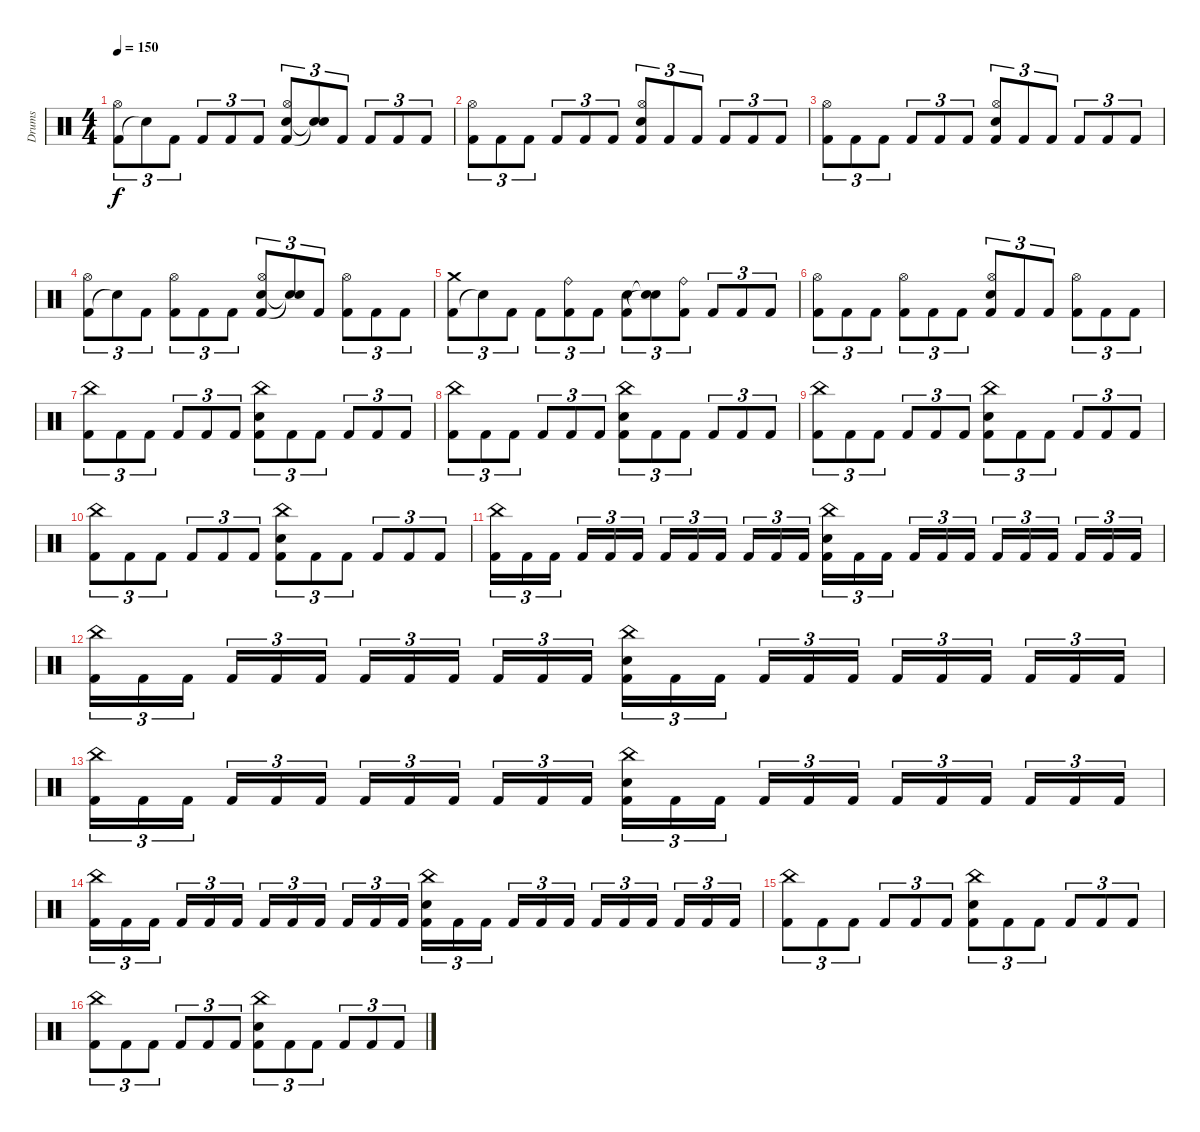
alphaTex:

\track ("Drums" "Drums") {instrument percussion}
\staff {score}
\articulation defaults
\ts (4 4)
\tempo 150
\clef neutral
\ks c
("Kick (hit) 2" "Hi-Hat (open)").8{tu (3 2) dy f} "Snare (hit)"{t}.8{tu (3 2)} "Kick (hit) 2".8{tu (3 2)} "Kick (hit) 2".8{tu (3 2)} "Kick (hit) 2".8{tu (3 2)} "Kick (hit) 2".8{tu (3 2)} ("Snare (hit) 2" "Kick (hit) 2" "Hi-Hat (open)").8{tu (3 2)} ("Snare (hit)"{t} "Snare (hit)"{t}).8{tu (3 2)} "Kick (hit) 2".8{tu (3 2)} "Kick (hit) 2".8{tu (3 2)} "Kick (hit) 2".8{tu (3 2)} "Kick (hit) 2".8{tu (3 2)} |
("Kick (hit) 2" "Hi-Hat (open)").8{tu (3 2)} "Kick (hit) 2".8{tu (3 2)} "Kick (hit) 2".8{tu (3 2)} "Kick (hit) 2".8{tu (3 2)} "Kick (hit) 2".8{tu (3 2)} "Kick (hit) 2".8{tu (3 2)} ("Snare (hit) 2" "Kick (hit) 2" "Hi-Hat (open)").8{tu (3 2)} "Kick (hit) 2".8{tu (3 2)} "Kick (hit) 2".8{tu (3 2)} "Kick (hit) 2".8{tu (3 2)} "Kick (hit) 2".8{tu (3 2)} "Kick (hit) 2".8{tu (3 2)} |
("Kick (hit) 2" "Hi-Hat (open)").8{tu (3 2)} "Kick (hit) 2".8{tu (3 2)} "Kick (hit) 2".8{tu (3 2)} "Kick (hit) 2".8{tu (3 2)} "Kick (hit) 2".8{tu (3 2)} "Kick (hit) 2".8{tu (3 2)} ("Snare (hit) 2" "Kick (hit) 2" "Hi-Hat (open)").8{tu (3 2)} "Kick (hit) 2".8{tu (3 2)} "Kick (hit) 2".8{tu (3 2)} "Kick (hit) 2".8{tu (3 2)} "Kick (hit) 2".8{tu (3 2)} "Kick (hit) 2".8{tu (3 2)} |
("Kick (hit) 2" "Hi-Hat (open)").8{tu (3 2)} "Snare (hit)"{t}.8{tu (3 2)} "Kick (hit) 2".8{tu (3 2)} ("Kick (hit) 2" "Hi-Hat (open)").8{tu (3 2)} "Kick (hit) 2".8{tu (3 2)} "Kick (hit) 2".8{tu (3 2)} ("Snare (hit) 2" "Kick (hit) 2" "Hi-Hat (open)").8{tu (3 2)} ("Snare (hit)"{t} "Snare (hit)"{t}).8{tu (3 2)} "Kick (hit) 2".8{tu (3 2)} ("Kick (hit) 2" "Hi-Hat (open)").8{tu (3 2)} "Kick (hit) 2".8{tu (3 2)} "Kick (hit) 2".8{tu (3 2)} |
("Kick (hit) 2" "Crash medium (hit)").8{tu (3 2)} "Snare (hit)"{t}.8{tu (3 2)} "Kick (hit) 2".8{tu (3 2)} "Kick (hit) 2".8{tu (3 2)} ("Kick (hit) 2" "Ride (bell)").8{tu (3 2)} "Kick (hit) 2".8{tu (3 2)} ("Snare (hit) 2" "Kick (hit) 2").8{tu (3 2)} ("Snare (hit)"{t} "Snare (hit)"{t}).8{tu (3 2)} ("Kick (hit) 2" "Ride (bell)").8{tu (3 2)} "Kick (hit) 2".8{tu (3 2)} "Kick (hit) 2".8{tu (3 2)} "Kick (hit) 2".8{tu (3 2)} |
("Kick (hit) 2" "Hi-Hat (open)").8{tu (3 2)} "Kick (hit) 2".8{tu (3 2)} "Kick (hit) 2".8{tu (3 2)} ("Kick (hit) 2" "Hi-Hat (open)").8{tu (3 2)} "Kick (hit) 2".8{tu (3 2)} "Kick (hit) 2".8{tu (3 2)} ("Snare (hit) 2" "Kick (hit) 2" "Hi-Hat (open)").8{tu (3 2)} "Kick (hit) 2".8{tu (3 2)} "Kick (hit) 2".8{tu (3 2)} ("Kick (hit) 2" "Hi-Hat (open)").8{tu (3 2)} "Kick (hit) 2".8{tu (3 2)} "Kick (hit) 2".8{tu (3 2)} |
("China (hit)" "Kick (hit) 2").8{tu (3 2)} "Kick (hit) 2".8{tu (3 2)} "Kick (hit) 2".8{tu (3 2)} "Kick (hit) 2".8{tu (3 2)} "Kick (hit) 2".8{tu (3 2)} "Kick (hit) 2".8{tu (3 2)} ("China (hit)" "Snare (hit) 2" "Kick (hit) 2").8{tu (3 2)} "Kick (hit) 2".8{tu (3 2)} "Kick (hit) 2".8{tu (3 2)} "Kick (hit) 2".8{tu (3 2)} "Kick (hit) 2".8{tu (3 2)} "Kick (hit) 2".8{tu (3 2)} |
("China (hit)" "Kick (hit) 2").8{tu (3 2)} "Kick (hit) 2".8{tu (3 2)} "Kick (hit) 2".8{tu (3 2)} "Kick (hit) 2".8{tu (3 2)} "Kick (hit) 2".8{tu (3 2)} "Kick (hit) 2".8{tu (3 2)} ("China (hit)" "Snare (hit) 2" "Kick (hit) 2").8{tu (3 2)} "Kick (hit) 2".8{tu (3 2)} "Kick (hit) 2".8{tu (3 2)} "Kick (hit) 2".8{tu (3 2)} "Kick (hit) 2".8{tu (3 2)} "Kick (hit) 2".8{tu (3 2)} |
("China (hit)" "Kick (hit) 2").8{tu (3 2)} "Kick (hit) 2".8{tu (3 2)} "Kick (hit) 2".8{tu (3 2)} "Kick (hit) 2".8{tu (3 2)} "Kick (hit) 2".8{tu (3 2)} "Kick (hit) 2".8{tu (3 2)} ("China (hit)" "Snare (hit) 2" "Kick (hit) 2").8{tu (3 2)} "Kick (hit) 2".8{tu (3 2)} "Kick (hit) 2".8{tu (3 2)} "Kick (hit) 2".8{tu (3 2)} "Kick (hit) 2".8{tu (3 2)} "Kick (hit) 2".8{tu (3 2)} |
("China (hit)" "Kick (hit) 2").8{tu (3 2)} "Kick (hit) 2".8{tu (3 2)} "Kick (hit) 2".8{tu (3 2)} "Kick (hit) 2".8{tu (3 2)} "Kick (hit) 2".8{tu (3 2)} "Kick (hit) 2".8{tu (3 2)} ("China (hit)" "Snare (hit) 2" "Kick (hit) 2").8{tu (3 2)} "Kick (hit) 2".8{tu (3 2)} "Kick (hit) 2".8{tu (3 2)} "Kick (hit) 2".8{tu (3 2)} "Kick (hit) 2".8{tu (3 2)} "Kick (hit) 2".8{tu (3 2)} |
("China (hit)" "Kick (hit) 2").16{tu (3 2)} "Kick (hit) 2".16{tu (3 2)} "Kick (hit) 2".16{tu (3 2) beam splitsecondary} "Kick (hit) 2".16{tu (3 2)} "Kick (hit) 2".16{tu (3 2)} "Kick (hit) 2".16{tu (3 2)} "Kick (hit) 2".16{tu (3 2)} "Kick (hit) 2".16{tu (3 2)} "Kick (hit) 2".16{tu (3 2) beam splitsecondary} "Kick (hit) 2".16{tu (3 2)} "Kick (hit) 2".16{tu (3 2)} "Kick (hit) 2".16{tu (3 2)} ("China (hit)" "Snare (hit) 2" "Kick (hit) 2").16{tu (3 2)} "Kick (hit) 2".16{tu (3 2)} "Kick (hit) 2".16{tu (3 2) beam splitsecondary} "Kick (hit) 2".16{tu (3 2)} "Kick (hit) 2".16{tu (3 2)} "Kick (hit) 2".16{tu (3 2)} "Kick (hit) 2".16{tu (3 2)} "Kick (hit) 2".16{tu (3 2)} "Kick (hit) 2".16{tu (3 2) beam splitsecondary} "Kick (hit) 2".16{tu (3 2)} "Kick (hit) 2".16{tu (3 2)} "Kick (hit) 2".16{tu (3 2)} |
("China (hit)" "Kick (hit) 2").16{tu (3 2)} "Kick (hit) 2".16{tu (3 2)} "Kick (hit) 2".16{tu (3 2) beam splitsecondary} "Kick (hit) 2".16{tu (3 2)} "Kick (hit) 2".16{tu (3 2)} "Kick (hit) 2".16{tu (3 2)} "Kick (hit) 2".16{tu (3 2)} "Kick (hit) 2".16{tu (3 2)} "Kick (hit) 2".16{tu (3 2) beam splitsecondary} "Kick (hit) 2".16{tu (3 2)} "Kick (hit) 2".16{tu (3 2)} "Kick (hit) 2".16{tu (3 2)} ("China (hit)" "Snare (hit) 2" "Kick (hit) 2").16{tu (3 2)} "Kick (hit) 2".16{tu (3 2)} "Kick (hit) 2".16{tu (3 2) beam splitsecondary} "Kick (hit) 2".16{tu (3 2)} "Kick (hit) 2".16{tu (3 2)} "Kick (hit) 2".16{tu (3 2)} "Kick (hit) 2".16{tu (3 2)} "Kick (hit) 2".16{tu (3 2)} "Kick (hit) 2".16{tu (3 2) beam splitsecondary} "Kick (hit) 2".16{tu (3 2)} "Kick (hit) 2".16{tu (3 2)} "Kick (hit) 2".16{tu (3 2)} |
("China (hit)" "Kick (hit) 2").16{tu (3 2)} "Kick (hit) 2".16{tu (3 2)} "Kick (hit) 2".16{tu (3 2) beam splitsecondary} "Kick (hit) 2".16{tu (3 2)} "Kick (hit) 2".16{tu (3 2)} "Kick (hit) 2".16{tu (3 2)} "Kick (hit) 2".16{tu (3 2)} "Kick (hit) 2".16{tu (3 2)} "Kick (hit) 2".16{tu (3 2) beam splitsecondary} "Kick (hit) 2".16{tu (3 2)} "Kick (hit) 2".16{tu (3 2)} "Kick (hit) 2".16{tu (3 2)} ("China (hit)" "Snare (hit) 2" "Kick (hit) 2").16{tu (3 2)} "Kick (hit) 2".16{tu (3 2)} "Kick (hit) 2".16{tu (3 2) beam splitsecondary} "Kick (hit) 2".16{tu (3 2)} "Kick (hit) 2".16{tu (3 2)} "Kick (hit) 2".16{tu (3 2)} "Kick (hit) 2".16{tu (3 2)} "Kick (hit) 2".16{tu (3 2)} "Kick (hit) 2".16{tu (3 2) beam splitsecondary} "Kick (hit) 2".16{tu (3 2)} "Kick (hit) 2".16{tu (3 2)} "Kick (hit) 2".16{tu (3 2)} |
("China (hit)" "Kick (hit) 2").16{tu (3 2)} "Kick (hit) 2".16{tu (3 2)} "Kick (hit) 2".16{tu (3 2) beam splitsecondary} "Kick (hit) 2".16{tu (3 2)} "Kick (hit) 2".16{tu (3 2)} "Kick (hit) 2".16{tu (3 2)} "Kick (hit) 2".16{tu (3 2)} "Kick (hit) 2".16{tu (3 2)} "Kick (hit) 2".16{tu (3 2) beam splitsecondary} "Kick (hit) 2".16{tu (3 2)} "Kick (hit) 2".16{tu (3 2)} "Kick (hit) 2".16{tu (3 2)} ("China (hit)" "Snare (hit) 2" "Kick (hit) 2").16{tu (3 2)} "Kick (hit) 2".16{tu (3 2)} "Kick (hit) 2".16{tu (3 2) beam splitsecondary} "Kick (hit) 2".16{tu (3 2)} "Kick (hit) 2".16{tu (3 2)} "Kick (hit) 2".16{tu (3 2)} "Kick (hit) 2".16{tu (3 2)} "Kick (hit) 2".16{tu (3 2)} "Kick (hit) 2".16{tu (3 2) beam splitsecondary} "Kick (hit) 2".16{tu (3 2)} "Kick (hit) 2".16{tu (3 2)} "Kick (hit) 2".16{tu (3 2)} |
("China (hit)" "Kick (hit) 2").8{tu (3 2)} "Kick (hit) 2".8{tu (3 2)} "Kick (hit) 2".8{tu (3 2)} "Kick (hit) 2".8{tu (3 2)} "Kick (hit) 2".8{tu (3 2)} "Kick (hit) 2".8{tu (3 2)} ("China (hit)" "Snare (hit) 2" "Kick (hit) 2").8{tu (3 2)} "Kick (hit) 2".8{tu (3 2)} "Kick (hit) 2".8{tu (3 2)} "Kick (hit) 2".8{tu (3 2)} "Kick (hit) 2".8{tu (3 2)} "Kick (hit) 2".8{tu (3 2)} |
("China (hit)" "Kick (hit) 2").8{tu (3 2)} "Kick (hit) 2".8{tu (3 2)} "Kick (hit) 2".8{tu (3 2)} "Kick (hit) 2".8{tu (3 2)} "Kick (hit) 2".8{tu (3 2)} "Kick (hit) 2".8{tu (3 2)} ("China (hit)" "Snare (hit) 2" "Kick (hit) 2").8{tu (3 2)} "Kick (hit) 2".8{tu (3 2)} "Kick (hit) 2".8{tu (3 2)} "Kick (hit) 2".8{tu (3 2)} "Kick (hit) 2".8{tu (3 2)} "Kick (hit) 2".8{tu (3 2)}
